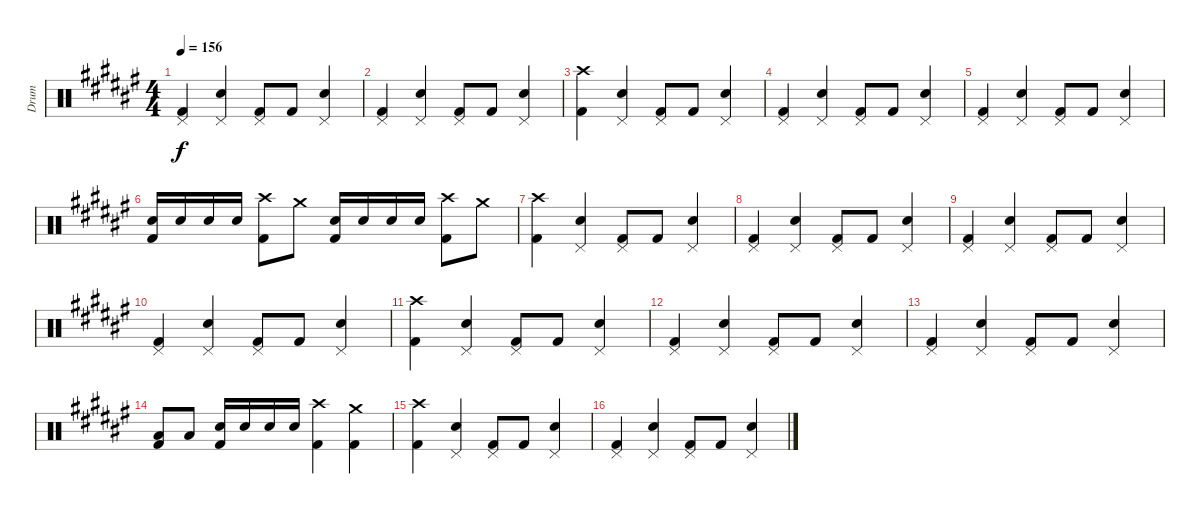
\track ("Drum" "Drum") {instrument percussion}
\staff {score}
\articulation defaults
\ts (4 4)
\tempo 156
\clef neutral
\ks f#
("Pedal Hi-Hat (hit)" "Kick (hit) 2").4{dy f} ("Pedal Hi-Hat (hit)" "Electric Snare (hit)").4 ("Pedal Hi-Hat (hit)" "Kick (hit) 2").8 "Kick (hit) 2".8 ("Pedal Hi-Hat (hit)" "Electric Snare (hit)").4 |
("Pedal Hi-Hat (hit)" "Kick (hit) 2").4 ("Pedal Hi-Hat (hit)" "Electric Snare (hit)").4 ("Pedal Hi-Hat (hit)" "Kick (hit) 2").8 "Kick (hit) 2".8 ("Pedal Hi-Hat (hit)" "Electric Snare (hit)").4 |
("Crash high (hit)" "Kick (hit) 2").4 ("Pedal Hi-Hat (hit)" "Electric Snare (hit)").4 ("Pedal Hi-Hat (hit)" "Kick (hit) 2").8 "Kick (hit) 2".8 ("Pedal Hi-Hat (hit)" "Electric Snare (hit)").4 |
("Pedal Hi-Hat (hit)" "Kick (hit) 2").4 ("Pedal Hi-Hat (hit)" "Electric Snare (hit)").4 ("Pedal Hi-Hat (hit)" "Kick (hit) 2").8 "Kick (hit) 2".8 ("Pedal Hi-Hat (hit)" "Electric Snare (hit)").4 |
("Pedal Hi-Hat (hit)" "Kick (hit) 2").4 ("Pedal Hi-Hat (hit)" "Electric Snare (hit)").4 ("Pedal Hi-Hat (hit)" "Kick (hit) 2").8 "Kick (hit) 2".8 ("Pedal Hi-Hat (hit)" "Electric Snare (hit)").4 |
("Electric Snare (hit)" "Kick (hit) 2").16 "Electric Snare (hit)".16 "Electric Snare (hit)".16 "Electric Snare (hit)".16 ("Crash high (hit)" "Kick (hit) 2").8 "Crash medium (hit)".8 ("Electric Snare (hit)" "Kick (hit) 2").16 "Electric Snare (hit)".16 "Electric Snare (hit)".16 "Electric Snare (hit)".16 ("Crash high (hit)" "Kick (hit) 2").8 "Crash medium (hit)".8 |
("Crash high (hit)" "Kick (hit) 2").4 ("Pedal Hi-Hat (hit)" "Electric Snare (hit)").4 ("Pedal Hi-Hat (hit)" "Kick (hit) 2").8 "Kick (hit) 2".8 ("Pedal Hi-Hat (hit)" "Electric Snare (hit)").4 |
("Pedal Hi-Hat (hit)" "Kick (hit) 2").4 ("Pedal Hi-Hat (hit)" "Electric Snare (hit)").4 ("Pedal Hi-Hat (hit)" "Kick (hit) 2").8 "Kick (hit) 2".8 ("Pedal Hi-Hat (hit)" "Electric Snare (hit)").4 |
("Pedal Hi-Hat (hit)" "Kick (hit) 2").4 ("Pedal Hi-Hat (hit)" "Electric Snare (hit)").4 ("Pedal Hi-Hat (hit)" "Kick (hit) 2").8 "Kick (hit) 2".8 ("Pedal Hi-Hat (hit)" "Electric Snare (hit)").4 |
("Pedal Hi-Hat (hit)" "Kick (hit) 2").4 ("Pedal Hi-Hat (hit)" "Electric Snare (hit)").4 ("Pedal Hi-Hat (hit)" "Kick (hit) 2").8 "Kick (hit) 2".8 ("Pedal Hi-Hat (hit)" "Electric Snare (hit)").4 |
("Crash high (hit)" "Kick (hit) 2").4 ("Pedal Hi-Hat (hit)" "Electric Snare (hit)").4 ("Pedal Hi-Hat (hit)" "Kick (hit) 2").8 "Kick (hit) 2".8 ("Pedal Hi-Hat (hit)" "Electric Snare (hit)").4 |
("Pedal Hi-Hat (hit)" "Kick (hit) 2").4 ("Pedal Hi-Hat (hit)" "Electric Snare (hit)").4 ("Pedal Hi-Hat (hit)" "Kick (hit) 2").8 "Kick (hit) 2".8 ("Pedal Hi-Hat (hit)" "Electric Snare (hit)").4 |
("Pedal Hi-Hat (hit)" "Kick (hit) 2").4 ("Pedal Hi-Hat (hit)" "Electric Snare (hit)").4 ("Pedal Hi-Hat (hit)" "Kick (hit) 2").8 "Kick (hit) 2".8 ("Pedal Hi-Hat (hit)" "Electric Snare (hit)").4 |
("Low Tom (hit)" "Kick (hit) 2").8 "Low Tom (hit)".8 ("Electric Snare (hit)" "Kick (hit) 2").16 "Electric Snare (hit)".16 "Electric Snare (hit)".16 "Electric Snare (hit)".16 ("Crash high (hit)" "Kick (hit) 2").4 ("Crash medium (hit)" "Kick (hit) 2").4 |
("Crash high (hit)" "Kick (hit) 2").4 ("Pedal Hi-Hat (hit)" "Electric Snare (hit)").4 ("Pedal Hi-Hat (hit)" "Kick (hit) 2").8 "Kick (hit) 2".8 ("Pedal Hi-Hat (hit)" "Electric Snare (hit)").4 |
("Pedal Hi-Hat (hit)" "Kick (hit) 2").4 ("Pedal Hi-Hat (hit)" "Electric Snare (hit)").4 ("Pedal Hi-Hat (hit)" "Kick (hit) 2").8 "Kick (hit) 2".8 ("Pedal Hi-Hat (hit)" "Electric Snare (hit)").4
